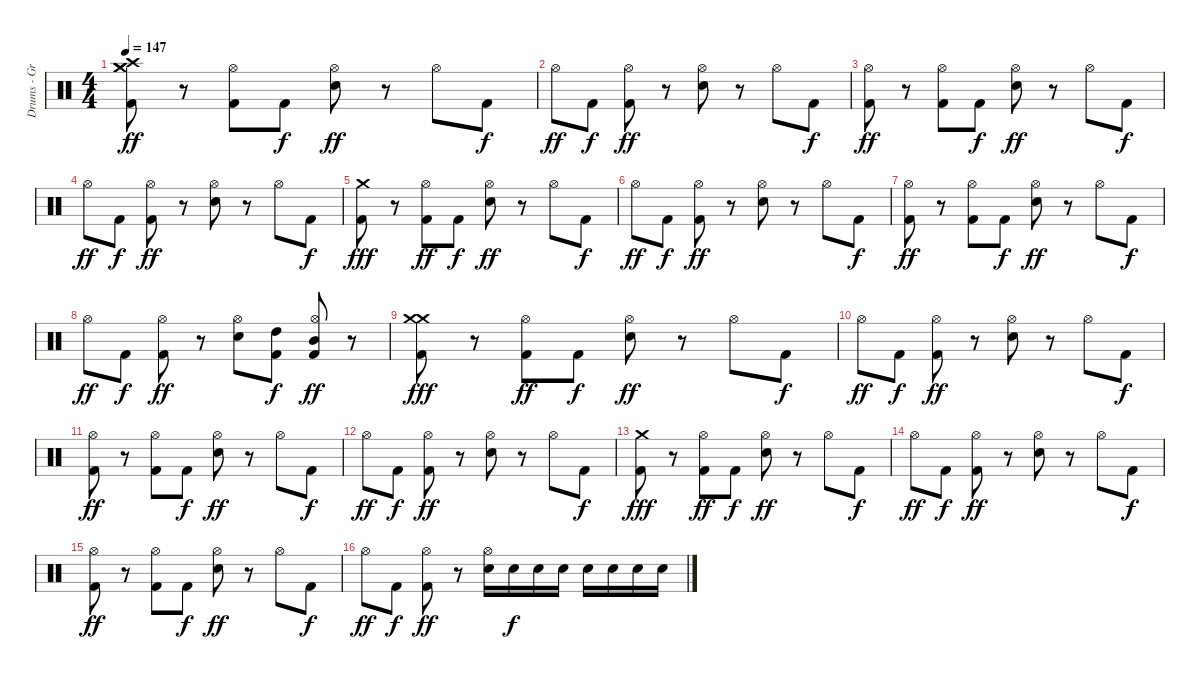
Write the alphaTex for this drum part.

\track ("Drums - Greg Upchurch" "Drums - Gr") {instrument percussion}
\staff {score}
\articulation defaults
\ts (4 4)
\tempo 147
\clef neutral
\ks c
("Crash medium (hit)" "Crash medium (hit)" "Crash high (hit)" "Kick (hit) 2").8{dy ff} r.8 ("Hi-Hat (open)" "Kick (hit) 2").8 "Kick (hit) 2".8{dy f} ("Hi-Hat (open)" "Electric Snare (hit)").8{dy ff} r.8 "Hi-Hat (open)".8 "Kick (hit) 2".8{dy f} |
"Hi-Hat (open)".8{dy ff} "Kick (hit) 2".8{dy f} ("Hi-Hat (open)" "Kick (hit) 2").8{dy ff} r.8 ("Hi-Hat (open)" "Electric Snare (hit)").8 r.8 "Hi-Hat (open)".8 "Kick (hit) 2".8{dy f} |
("Hi-Hat (open)" "Kick (hit) 2").8{dy ff} r.8 ("Hi-Hat (open)" "Kick (hit) 2").8 "Kick (hit) 2".8{dy f} ("Hi-Hat (open)" "Electric Snare (hit)").8{dy ff} r.8 "Hi-Hat (open)".8 "Kick (hit) 2".8{dy f} |
"Hi-Hat (open)".8{dy ff} "Kick (hit) 2".8{dy f} ("Hi-Hat (open)" "Kick (hit) 2").8{dy ff} r.8 ("Hi-Hat (open)" "Electric Snare (hit)").8 r.8 "Hi-Hat (open)".8 "Kick (hit) 2".8{dy f} |
("Crash medium (hit)" "Kick (hit) 2").8{dy fff} r.8 ("Hi-Hat (open)" "Kick (hit) 2").8{dy ff} "Kick (hit) 2".8{dy f} ("Hi-Hat (open)" "Electric Snare (hit)").8{dy ff} r.8 "Hi-Hat (open)".8 "Kick (hit) 2".8{dy f} |
"Hi-Hat (open)".8{dy ff} "Kick (hit) 2".8{dy f} ("Hi-Hat (open)" "Kick (hit) 2").8{dy ff} r.8 ("Hi-Hat (open)" "Electric Snare (hit)").8 r.8 "Hi-Hat (open)".8 "Kick (hit) 2".8{dy f} |
("Hi-Hat (open)" "Kick (hit) 2").8{dy ff} r.8 ("Hi-Hat (open)" "Kick (hit) 2").8 "Kick (hit) 2".8{dy f} ("Hi-Hat (open)" "Electric Snare (hit)").8{dy ff} r.8 "Hi-Hat (open)".8 "Kick (hit) 2".8{dy f} |
"Hi-Hat (open)".8{dy ff} "Kick (hit) 2".8{dy f} ("Hi-Hat (open)" "Kick (hit) 2").8{dy ff} r.8 ("Hi-Hat (open)" "Electric Snare (hit)").8 ("High Tom (hit)" "Kick (hit) 2").8{dy f} ("Hi-Hat (open)" "Mid Tom (hit)" "Kick (hit) 2").8{dy ff} r.8 |
("Crash medium (hit)" "Crash medium (hit)" "Kick (hit) 2").8{dy fff} r.8 ("Hi-Hat (open)" "Kick (hit) 2").8{dy ff} "Kick (hit) 2".8{dy f} ("Hi-Hat (open)" "Electric Snare (hit)").8{dy ff} r.8 "Hi-Hat (open)".8 "Kick (hit) 2".8{dy f} |
"Hi-Hat (open)".8{dy ff} "Kick (hit) 2".8{dy f} ("Hi-Hat (open)" "Kick (hit) 2").8{dy ff} r.8 ("Hi-Hat (open)" "Electric Snare (hit)").8 r.8 "Hi-Hat (open)".8 "Kick (hit) 2".8{dy f} |
("Hi-Hat (open)" "Kick (hit) 2").8{dy ff} r.8 ("Hi-Hat (open)" "Kick (hit) 2").8 "Kick (hit) 2".8{dy f} ("Hi-Hat (open)" "Electric Snare (hit)").8{dy ff} r.8 "Hi-Hat (open)".8 "Kick (hit) 2".8{dy f} |
"Hi-Hat (open)".8{dy ff} "Kick (hit) 2".8{dy f} ("Hi-Hat (open)" "Kick (hit) 2").8{dy ff} r.8 ("Hi-Hat (open)" "Electric Snare (hit)").8 r.8 "Hi-Hat (open)".8 "Kick (hit) 2".8{dy f} |
("Crash medium (hit)" "Kick (hit) 2").8{dy fff} r.8 ("Hi-Hat (open)" "Kick (hit) 2").8{dy ff} "Kick (hit) 2".8{dy f} ("Hi-Hat (open)" "Electric Snare (hit)").8{dy ff} r.8 "Hi-Hat (open)".8 "Kick (hit) 2".8{dy f} |
"Hi-Hat (open)".8{dy ff} "Kick (hit) 2".8{dy f} ("Hi-Hat (open)" "Kick (hit) 2").8{dy ff} r.8 ("Hi-Hat (open)" "Electric Snare (hit)").8 r.8 "Hi-Hat (open)".8 "Kick (hit) 2".8{dy f} |
("Hi-Hat (open)" "Kick (hit) 2").8{dy ff} r.8 ("Hi-Hat (open)" "Kick (hit) 2").8 "Kick (hit) 2".8{dy f} ("Hi-Hat (open)" "Electric Snare (hit)").8{dy ff} r.8 "Hi-Hat (open)".8 "Kick (hit) 2".8{dy f} |
"Hi-Hat (open)".8{dy ff} "Kick (hit) 2".8{dy f} ("Hi-Hat (open)" "Kick (hit) 2").8{dy ff} r.8 ("Hi-Hat (open)" "Electric Snare (hit)").16 "Electric Snare (hit)".16{dy f} "Electric Snare (hit)".16 "Electric Snare (hit)".16 "Electric Snare (hit)".16 "Electric Snare (hit)".16 "Electric Snare (hit)".16 "Electric Snare (hit)".16
